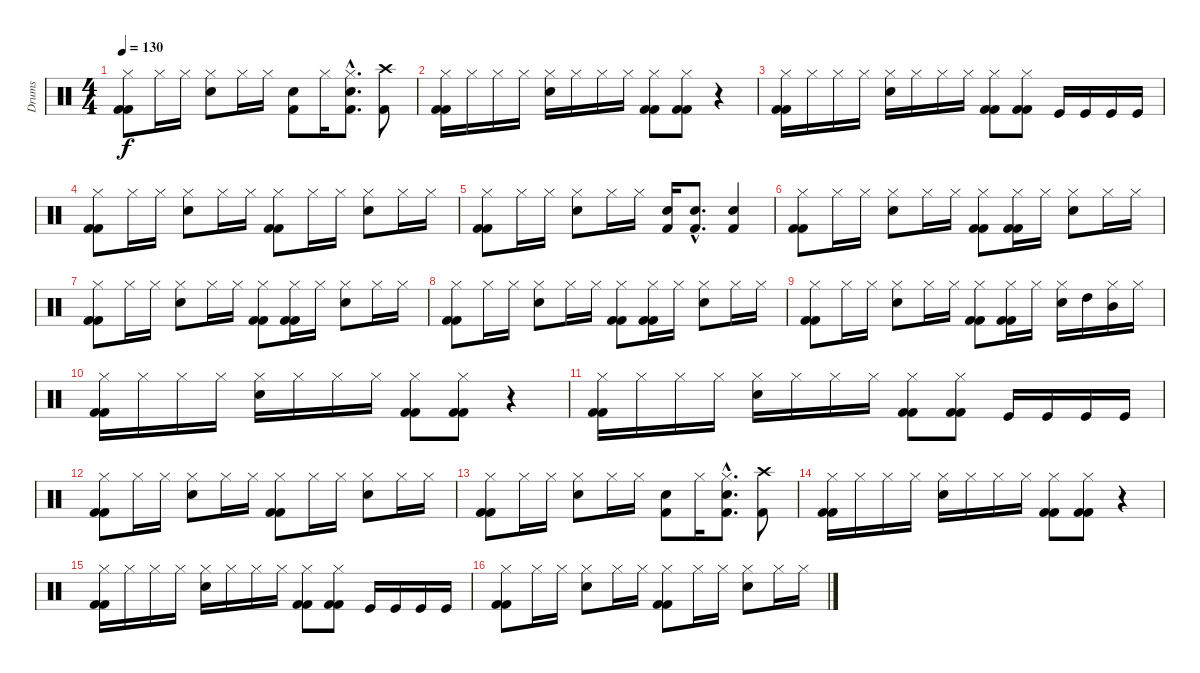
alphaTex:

\track ("Drums" "Drums") {instrument percussion}
\staff {score}
\articulation defaults
\ts (4 4)
\tempo 130
\clef neutral
\ks c
("Hi-Hat (closed)" "Kick (hit) 2" "Kick (hit) 2").8{dy f} "Hi-Hat (closed)".16 "Hi-Hat (closed)".16 ("Hi-Hat (closed)" "Electric Snare (hit)").8 "Hi-Hat (closed)".16 "Hi-Hat (closed)".16 ("Electric Snare (hit)" "Kick (hit) 2").8 "Hi-Hat (closed)".16 ("Hi-Hat (closed)"{hac} "Electric Snare (hit)"{hac} "Kick (hit) 2"{hac}).8{d} ("Crash high (hit)" "Kick (hit) 2").8 |
("Hi-Hat (closed)" "Kick (hit) 2" "Kick (hit) 2").16 "Hi-Hat (closed)".16 "Hi-Hat (closed)".16 "Hi-Hat (closed)".16 ("Hi-Hat (closed)" "Electric Snare (hit)").16 "Hi-Hat (closed)".16 "Hi-Hat (closed)".16 "Hi-Hat (closed)".16 ("Hi-Hat (closed)" "Kick (hit) 2" "Kick (hit) 2").8 ("Hi-Hat (closed)" "Kick (hit) 2" "Kick (hit) 2").8 r.4 |
("Hi-Hat (closed)" "Kick (hit) 2" "Kick (hit) 2").16 "Hi-Hat (closed)".16 "Hi-Hat (closed)".16 "Hi-Hat (closed)".16 ("Hi-Hat (closed)" "Electric Snare (hit)").16 "Hi-Hat (closed)".16 "Hi-Hat (closed)".16 "Hi-Hat (closed)".16 ("Hi-Hat (closed)" "Kick (hit) 2" "Kick (hit) 2").8 ("Hi-Hat (closed)" "Kick (hit) 2" "Kick (hit) 2").8 "Kick (hit)".16 "Kick (hit)".16 "Kick (hit)".16 "Kick (hit)".16 |
("Hi-Hat (closed)" "Kick (hit) 2" "Kick (hit) 2").8 "Hi-Hat (closed)".16 "Hi-Hat (closed)".16 ("Hi-Hat (closed)" "Electric Snare (hit)").8 "Hi-Hat (closed)".16 "Hi-Hat (closed)".16 ("Hi-Hat (closed)" "Kick (hit) 2" "Kick (hit) 2").8 "Hi-Hat (closed)".16 "Hi-Hat (closed)".16 ("Hi-Hat (closed)" "Electric Snare (hit)").8 "Hi-Hat (closed)".16 "Hi-Hat (closed)".16 |
("Hi-Hat (closed)" "Kick (hit) 2" "Kick (hit) 2").8 "Hi-Hat (closed)".16 "Hi-Hat (closed)".16 ("Hi-Hat (closed)" "Electric Snare (hit)").8 "Hi-Hat (closed)".16 "Hi-Hat (closed)".16 ("Electric Snare (hit)" "Kick (hit) 2").16 ("Electric Snare (hit)"{hac} "Kick (hit) 2"{hac}).8{d} ("Electric Snare (hit)" "Kick (hit) 2").4 |
("Hi-Hat (closed)" "Kick (hit) 2" "Kick (hit) 2").8 "Hi-Hat (closed)".16 "Hi-Hat (closed)".16 ("Hi-Hat (closed)" "Electric Snare (hit)").8 "Hi-Hat (closed)".16 "Hi-Hat (closed)".16 ("Hi-Hat (closed)" "Kick (hit) 2" "Kick (hit) 2").8 ("Hi-Hat (closed)" "Kick (hit) 2" "Kick (hit) 2").16 "Hi-Hat (closed)".16 ("Hi-Hat (closed)" "Electric Snare (hit)").8 "Hi-Hat (closed)".16 "Hi-Hat (closed)".16 |
("Hi-Hat (closed)" "Kick (hit) 2" "Kick (hit) 2").8 "Hi-Hat (closed)".16 "Hi-Hat (closed)".16 ("Hi-Hat (closed)" "Electric Snare (hit)").8 "Hi-Hat (closed)".16 "Hi-Hat (closed)".16 ("Hi-Hat (closed)" "Kick (hit) 2" "Kick (hit) 2").8 ("Hi-Hat (closed)" "Kick (hit) 2" "Kick (hit) 2").16 "Hi-Hat (closed)".16 ("Hi-Hat (closed)" "Electric Snare (hit)").8 "Hi-Hat (closed)".16 "Hi-Hat (closed)".16 |
("Hi-Hat (closed)" "Kick (hit) 2" "Kick (hit) 2").8 "Hi-Hat (closed)".16 "Hi-Hat (closed)".16 ("Hi-Hat (closed)" "Electric Snare (hit)").8 "Hi-Hat (closed)".16 "Hi-Hat (closed)".16 ("Hi-Hat (closed)" "Kick (hit) 2" "Kick (hit) 2").8 ("Hi-Hat (closed)" "Kick (hit) 2" "Kick (hit) 2").16 "Hi-Hat (closed)".16 ("Hi-Hat (closed)" "Electric Snare (hit)").8 "Hi-Hat (closed)".16 "Hi-Hat (closed)".16 |
("Hi-Hat (closed)" "Kick (hit) 2" "Kick (hit) 2").8 "Hi-Hat (closed)".16 "Hi-Hat (closed)".16 ("Hi-Hat (closed)" "Electric Snare (hit)").8 "Hi-Hat (closed)".16 "Hi-Hat (closed)".16 ("Hi-Hat (closed)" "Kick (hit) 2" "Kick (hit) 2").8 ("Hi-Hat (closed)" "Kick (hit) 2" "Kick (hit) 2").16 "Hi-Hat (closed)".16 ("Hi-Hat (closed)" "Electric Snare (hit)").16 "High Tom (hit)".16 ("Hi-Hat (closed)" "Mid Tom (hit)").16 "Hi-Hat (closed)".16 |
("Hi-Hat (closed)" "Kick (hit) 2" "Kick (hit) 2").16 "Hi-Hat (closed)".16 "Hi-Hat (closed)".16 "Hi-Hat (closed)".16 ("Hi-Hat (closed)" "Electric Snare (hit)").16 "Hi-Hat (closed)".16 "Hi-Hat (closed)".16 "Hi-Hat (closed)".16 ("Hi-Hat (closed)" "Kick (hit) 2" "Kick (hit) 2").8 ("Hi-Hat (closed)" "Kick (hit) 2" "Kick (hit) 2").8 r.4 |
("Hi-Hat (closed)" "Kick (hit) 2" "Kick (hit) 2").16 "Hi-Hat (closed)".16 "Hi-Hat (closed)".16 "Hi-Hat (closed)".16 ("Hi-Hat (closed)" "Electric Snare (hit)").16 "Hi-Hat (closed)".16 "Hi-Hat (closed)".16 "Hi-Hat (closed)".16 ("Hi-Hat (closed)" "Kick (hit) 2" "Kick (hit) 2").8 ("Hi-Hat (closed)" "Kick (hit) 2" "Kick (hit) 2").8 "Kick (hit)".16 "Kick (hit)".16 "Kick (hit)".16 "Kick (hit)".16 |
("Hi-Hat (closed)" "Kick (hit) 2" "Kick (hit) 2").8 "Hi-Hat (closed)".16 "Hi-Hat (closed)".16 ("Hi-Hat (closed)" "Electric Snare (hit)").8 "Hi-Hat (closed)".16 "Hi-Hat (closed)".16 ("Hi-Hat (closed)" "Kick (hit) 2" "Kick (hit) 2").8 "Hi-Hat (closed)".16 "Hi-Hat (closed)".16 ("Hi-Hat (closed)" "Electric Snare (hit)").8 "Hi-Hat (closed)".16 "Hi-Hat (closed)".16 |
("Hi-Hat (closed)" "Kick (hit) 2" "Kick (hit) 2").8 "Hi-Hat (closed)".16 "Hi-Hat (closed)".16 ("Hi-Hat (closed)" "Electric Snare (hit)").8 "Hi-Hat (closed)".16 "Hi-Hat (closed)".16 ("Electric Snare (hit)" "Kick (hit) 2").8 "Hi-Hat (closed)".16 ("Hi-Hat (closed)"{hac} "Electric Snare (hit)"{hac} "Kick (hit) 2"{hac}).8{d} ("Crash high (hit)" "Kick (hit) 2").8 |
("Hi-Hat (closed)" "Kick (hit) 2" "Kick (hit) 2").16 "Hi-Hat (closed)".16 "Hi-Hat (closed)".16 "Hi-Hat (closed)".16 ("Hi-Hat (closed)" "Electric Snare (hit)").16 "Hi-Hat (closed)".16 "Hi-Hat (closed)".16 "Hi-Hat (closed)".16 ("Hi-Hat (closed)" "Kick (hit) 2" "Kick (hit) 2").8 ("Hi-Hat (closed)" "Kick (hit) 2" "Kick (hit) 2").8 r.4 |
("Hi-Hat (closed)" "Kick (hit) 2" "Kick (hit) 2").16 "Hi-Hat (closed)".16 "Hi-Hat (closed)".16 "Hi-Hat (closed)".16 ("Hi-Hat (closed)" "Electric Snare (hit)").16 "Hi-Hat (closed)".16 "Hi-Hat (closed)".16 "Hi-Hat (closed)".16 ("Hi-Hat (closed)" "Kick (hit) 2" "Kick (hit) 2").8 ("Hi-Hat (closed)" "Kick (hit) 2" "Kick (hit) 2").8 "Kick (hit)".16 "Kick (hit)".16 "Kick (hit)".16 "Kick (hit)".16 |
("Hi-Hat (closed)" "Kick (hit) 2" "Kick (hit) 2").8 "Hi-Hat (closed)".16 "Hi-Hat (closed)".16 ("Hi-Hat (closed)" "Electric Snare (hit)").8 "Hi-Hat (closed)".16 "Hi-Hat (closed)".16 ("Hi-Hat (closed)" "Kick (hit) 2" "Kick (hit) 2").8 "Hi-Hat (closed)".16 "Hi-Hat (closed)".16 ("Hi-Hat (closed)" "Electric Snare (hit)").8 "Hi-Hat (closed)".16 "Hi-Hat (closed)".16
